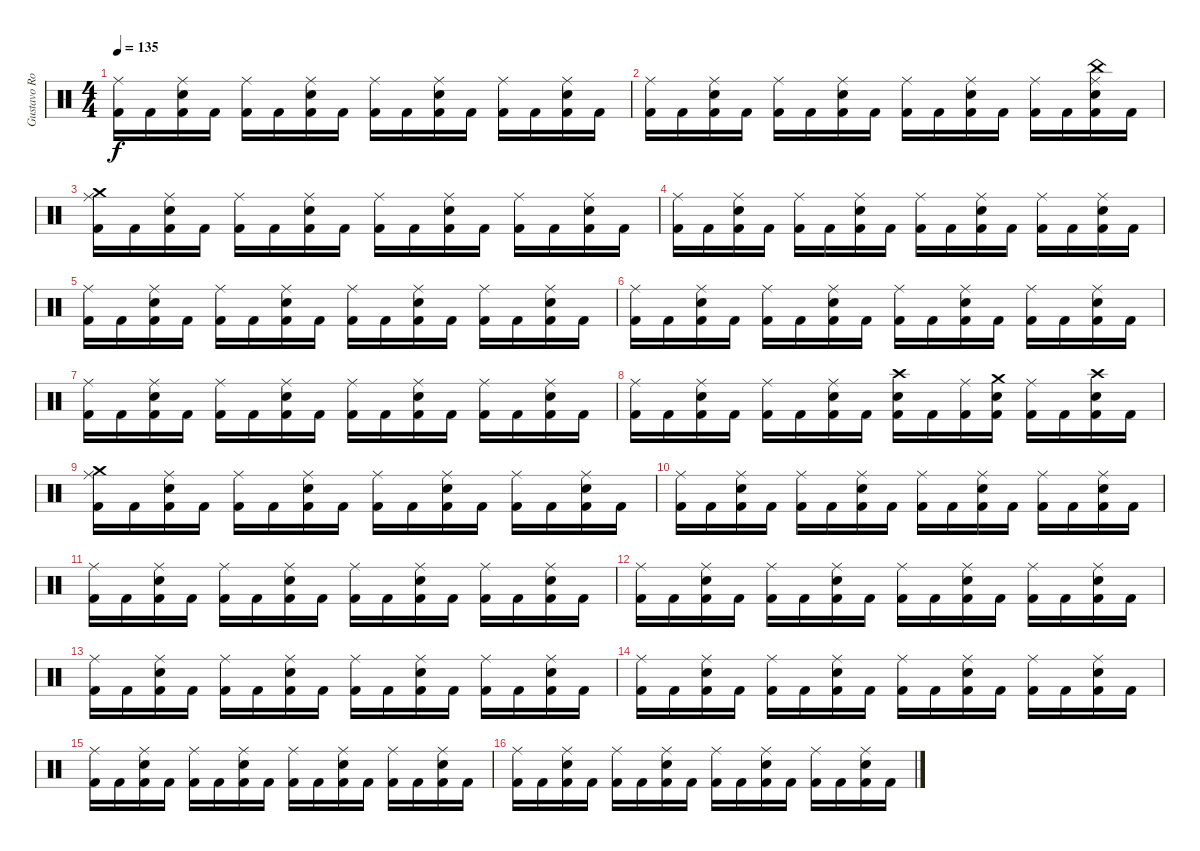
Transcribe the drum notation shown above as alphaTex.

\track ("Gustavo Rowek" "Gustavo Ro") {instrument percussion}
\staff {score}
\articulation defaults
\ts (4 4)
\tempo 135
\clef neutral
\ks c
("Kick (hit) 2" "Ride (middle)").16{dy f} "Kick (hit) 2".16 ("Kick (hit) 2" "Ride (middle)" "Electric Snare (hit)").16 "Kick (hit) 2".16 ("Kick (hit) 2" "Ride (middle)").16 "Kick (hit) 2".16 ("Kick (hit) 2" "Ride (middle)" "Electric Snare (hit)").16 "Kick (hit) 2".16 ("Kick (hit) 2" "Ride (middle)").16 "Kick (hit) 2".16 ("Kick (hit) 2" "Ride (middle)" "Electric Snare (hit)").16 "Kick (hit) 2".16 ("Kick (hit) 2" "Ride (middle)").16 "Kick (hit) 2".16 ("Kick (hit) 2" "Ride (middle)" "Electric Snare (hit)").16 "Kick (hit) 2".16 |
("Kick (hit) 2" "Ride (middle)").16 "Kick (hit) 2".16 ("Kick (hit) 2" "Ride (middle)" "Electric Snare (hit)").16 "Kick (hit) 2".16 ("Kick (hit) 2" "Ride (middle)").16 "Kick (hit) 2".16 ("Kick (hit) 2" "Ride (middle)" "Electric Snare (hit)").16 "Kick (hit) 2".16 ("Kick (hit) 2" "Ride (middle)").16 "Kick (hit) 2".16 ("Kick (hit) 2" "Ride (middle)" "Electric Snare (hit)").16 "Kick (hit) 2".16 ("Kick (hit) 2" "Ride (middle)").16 "Kick (hit) 2".16 ("Kick (hit) 2" "Ride (middle)" "Electric Snare (hit)" "China (hit)").16 "Kick (hit) 2".16 |
("Kick (hit) 2" "Ride (middle)" "Crash medium (hit)").16 "Kick (hit) 2".16 ("Kick (hit) 2" "Ride (middle)" "Electric Snare (hit)").16 "Kick (hit) 2".16 ("Kick (hit) 2" "Ride (middle)").16 "Kick (hit) 2".16 ("Kick (hit) 2" "Ride (middle)" "Electric Snare (hit)").16 "Kick (hit) 2".16 ("Kick (hit) 2" "Ride (middle)").16 "Kick (hit) 2".16 ("Kick (hit) 2" "Ride (middle)" "Electric Snare (hit)").16 "Kick (hit) 2".16 ("Kick (hit) 2" "Ride (middle)").16 "Kick (hit) 2".16 ("Kick (hit) 2" "Ride (middle)" "Electric Snare (hit)").16 "Kick (hit) 2".16 |
("Kick (hit) 2" "Ride (middle)").16 "Kick (hit) 2".16 ("Kick (hit) 2" "Ride (middle)" "Electric Snare (hit)").16 "Kick (hit) 2".16 ("Kick (hit) 2" "Ride (middle)").16 "Kick (hit) 2".16 ("Kick (hit) 2" "Ride (middle)" "Electric Snare (hit)").16 "Kick (hit) 2".16 ("Kick (hit) 2" "Ride (middle)").16 "Kick (hit) 2".16 ("Kick (hit) 2" "Ride (middle)" "Electric Snare (hit)").16 "Kick (hit) 2".16 ("Kick (hit) 2" "Ride (middle)").16 "Kick (hit) 2".16 ("Kick (hit) 2" "Ride (middle)" "Electric Snare (hit)").16 "Kick (hit) 2".16 |
("Kick (hit) 2" "Ride (middle)").16 "Kick (hit) 2".16 ("Kick (hit) 2" "Ride (middle)" "Electric Snare (hit)").16 "Kick (hit) 2".16 ("Kick (hit) 2" "Ride (middle)").16 "Kick (hit) 2".16 ("Kick (hit) 2" "Ride (middle)" "Electric Snare (hit)").16 "Kick (hit) 2".16 ("Kick (hit) 2" "Ride (middle)").16 "Kick (hit) 2".16 ("Kick (hit) 2" "Ride (middle)" "Electric Snare (hit)").16 "Kick (hit) 2".16 ("Kick (hit) 2" "Ride (middle)").16 "Kick (hit) 2".16 ("Kick (hit) 2" "Ride (middle)" "Electric Snare (hit)").16 "Kick (hit) 2".16 |
("Kick (hit) 2" "Ride (middle)").16 "Kick (hit) 2".16 ("Kick (hit) 2" "Ride (middle)" "Electric Snare (hit)").16 "Kick (hit) 2".16 ("Kick (hit) 2" "Ride (middle)").16 "Kick (hit) 2".16 ("Kick (hit) 2" "Ride (middle)" "Electric Snare (hit)").16 "Kick (hit) 2".16 ("Kick (hit) 2" "Ride (middle)").16 "Kick (hit) 2".16 ("Kick (hit) 2" "Ride (middle)" "Electric Snare (hit)").16 "Kick (hit) 2".16 ("Kick (hit) 2" "Ride (middle)").16 "Kick (hit) 2".16 ("Kick (hit) 2" "Ride (middle)" "Electric Snare (hit)").16 "Kick (hit) 2".16 |
("Kick (hit) 2" "Ride (middle)").16 "Kick (hit) 2".16 ("Kick (hit) 2" "Ride (middle)" "Electric Snare (hit)").16 "Kick (hit) 2".16 ("Kick (hit) 2" "Ride (middle)").16 "Kick (hit) 2".16 ("Kick (hit) 2" "Ride (middle)" "Electric Snare (hit)").16 "Kick (hit) 2".16 ("Kick (hit) 2" "Ride (middle)").16 "Kick (hit) 2".16 ("Kick (hit) 2" "Ride (middle)" "Electric Snare (hit)").16 "Kick (hit) 2".16 ("Kick (hit) 2" "Ride (middle)").16 "Kick (hit) 2".16 ("Kick (hit) 2" "Ride (middle)" "Electric Snare (hit)").16 "Kick (hit) 2".16 |
("Kick (hit) 2" "Ride (middle)").16 "Kick (hit) 2".16 ("Kick (hit) 2" "Ride (middle)" "Electric Snare (hit)").16 "Kick (hit) 2".16 ("Kick (hit) 2" "Ride (middle)").16 "Kick (hit) 2".16 ("Kick (hit) 2" "Ride (middle)" "Electric Snare (hit)").16 "Kick (hit) 2".16 ("Kick (hit) 2" "Electric Snare (hit)" "Crash high (hit)").16 "Kick (hit) 2".16 ("Kick (hit) 2" "Ride (middle)").16 ("Kick (hit) 2" "Electric Snare (hit)" "Crash medium (hit)").16 ("Kick (hit) 2" "Ride (middle)").16 "Kick (hit) 2".16 ("Kick (hit) 2" "Electric Snare (hit)" "Crash high (hit)").16 "Kick (hit) 2".16 |
("Kick (hit) 2" "Ride (middle)" "Crash medium (hit)").16 "Kick (hit) 2".16 ("Kick (hit) 2" "Ride (middle)" "Electric Snare (hit)").16 "Kick (hit) 2".16 ("Kick (hit) 2" "Ride (middle)").16 "Kick (hit) 2".16 ("Kick (hit) 2" "Ride (middle)" "Electric Snare (hit)").16 "Kick (hit) 2".16 ("Kick (hit) 2" "Ride (middle)").16 "Kick (hit) 2".16 ("Kick (hit) 2" "Ride (middle)" "Electric Snare (hit)").16 "Kick (hit) 2".16 ("Kick (hit) 2" "Ride (middle)").16 "Kick (hit) 2".16 ("Kick (hit) 2" "Ride (middle)" "Electric Snare (hit)").16 "Kick (hit) 2".16 |
("Kick (hit) 2" "Ride (middle)").16 "Kick (hit) 2".16 ("Kick (hit) 2" "Ride (middle)" "Electric Snare (hit)").16 "Kick (hit) 2".16 ("Kick (hit) 2" "Ride (middle)").16 "Kick (hit) 2".16 ("Kick (hit) 2" "Ride (middle)" "Electric Snare (hit)").16 "Kick (hit) 2".16 ("Kick (hit) 2" "Ride (middle)").16 "Kick (hit) 2".16 ("Kick (hit) 2" "Ride (middle)" "Electric Snare (hit)").16 "Kick (hit) 2".16 ("Kick (hit) 2" "Ride (middle)").16 "Kick (hit) 2".16 ("Kick (hit) 2" "Ride (middle)" "Electric Snare (hit)").16 "Kick (hit) 2".16 |
("Kick (hit) 2" "Ride (middle)").16 "Kick (hit) 2".16 ("Kick (hit) 2" "Ride (middle)" "Electric Snare (hit)").16 "Kick (hit) 2".16 ("Kick (hit) 2" "Ride (middle)").16 "Kick (hit) 2".16 ("Kick (hit) 2" "Ride (middle)" "Electric Snare (hit)").16 "Kick (hit) 2".16 ("Kick (hit) 2" "Ride (middle)").16 "Kick (hit) 2".16 ("Kick (hit) 2" "Ride (middle)" "Electric Snare (hit)").16 "Kick (hit) 2".16 ("Kick (hit) 2" "Ride (middle)").16 "Kick (hit) 2".16 ("Kick (hit) 2" "Ride (middle)" "Electric Snare (hit)").16 "Kick (hit) 2".16 |
("Kick (hit) 2" "Ride (middle)").16 "Kick (hit) 2".16 ("Kick (hit) 2" "Ride (middle)" "Electric Snare (hit)").16 "Kick (hit) 2".16 ("Kick (hit) 2" "Ride (middle)").16 "Kick (hit) 2".16 ("Kick (hit) 2" "Ride (middle)" "Electric Snare (hit)").16 "Kick (hit) 2".16 ("Kick (hit) 2" "Ride (middle)").16 "Kick (hit) 2".16 ("Kick (hit) 2" "Ride (middle)" "Electric Snare (hit)").16 "Kick (hit) 2".16 ("Kick (hit) 2" "Ride (middle)").16 "Kick (hit) 2".16 ("Kick (hit) 2" "Ride (middle)" "Electric Snare (hit)").16 "Kick (hit) 2".16 |
("Kick (hit) 2" "Ride (middle)").16 "Kick (hit) 2".16 ("Kick (hit) 2" "Ride (middle)" "Electric Snare (hit)").16 "Kick (hit) 2".16 ("Kick (hit) 2" "Ride (middle)").16 "Kick (hit) 2".16 ("Kick (hit) 2" "Ride (middle)" "Electric Snare (hit)").16 "Kick (hit) 2".16 ("Kick (hit) 2" "Ride (middle)").16 "Kick (hit) 2".16 ("Kick (hit) 2" "Ride (middle)" "Electric Snare (hit)").16 "Kick (hit) 2".16 ("Kick (hit) 2" "Ride (middle)").16 "Kick (hit) 2".16 ("Kick (hit) 2" "Ride (middle)" "Electric Snare (hit)").16 "Kick (hit) 2".16 |
("Kick (hit) 2" "Ride (middle)").16 "Kick (hit) 2".16 ("Kick (hit) 2" "Ride (middle)" "Electric Snare (hit)").16 "Kick (hit) 2".16 ("Kick (hit) 2" "Ride (middle)").16 "Kick (hit) 2".16 ("Kick (hit) 2" "Ride (middle)" "Electric Snare (hit)").16 "Kick (hit) 2".16 ("Kick (hit) 2" "Ride (middle)").16 "Kick (hit) 2".16 ("Kick (hit) 2" "Ride (middle)" "Electric Snare (hit)").16 "Kick (hit) 2".16 ("Kick (hit) 2" "Ride (middle)").16 "Kick (hit) 2".16 ("Kick (hit) 2" "Ride (middle)" "Electric Snare (hit)").16 "Kick (hit) 2".16 |
("Kick (hit) 2" "Ride (middle)").16 "Kick (hit) 2".16 ("Kick (hit) 2" "Ride (middle)" "Electric Snare (hit)").16 "Kick (hit) 2".16 ("Kick (hit) 2" "Ride (middle)").16 "Kick (hit) 2".16 ("Kick (hit) 2" "Ride (middle)" "Electric Snare (hit)").16 "Kick (hit) 2".16 ("Kick (hit) 2" "Ride (middle)").16 "Kick (hit) 2".16 ("Kick (hit) 2" "Ride (middle)" "Electric Snare (hit)").16 "Kick (hit) 2".16 ("Kick (hit) 2" "Ride (middle)").16 "Kick (hit) 2".16 ("Kick (hit) 2" "Ride (middle)" "Electric Snare (hit)").16 "Kick (hit) 2".16 |
("Kick (hit) 2" "Ride (middle)").16 "Kick (hit) 2".16 ("Kick (hit) 2" "Ride (middle)" "Electric Snare (hit)").16 "Kick (hit) 2".16 ("Kick (hit) 2" "Ride (middle)").16 "Kick (hit) 2".16 ("Kick (hit) 2" "Ride (middle)" "Electric Snare (hit)").16 "Kick (hit) 2".16 ("Kick (hit) 2" "Ride (middle)").16 "Kick (hit) 2".16 ("Kick (hit) 2" "Ride (middle)" "Electric Snare (hit)").16 "Kick (hit) 2".16 ("Kick (hit) 2" "Ride (middle)").16 "Kick (hit) 2".16 ("Kick (hit) 2" "Ride (middle)" "Electric Snare (hit)").16 "Kick (hit) 2".16
